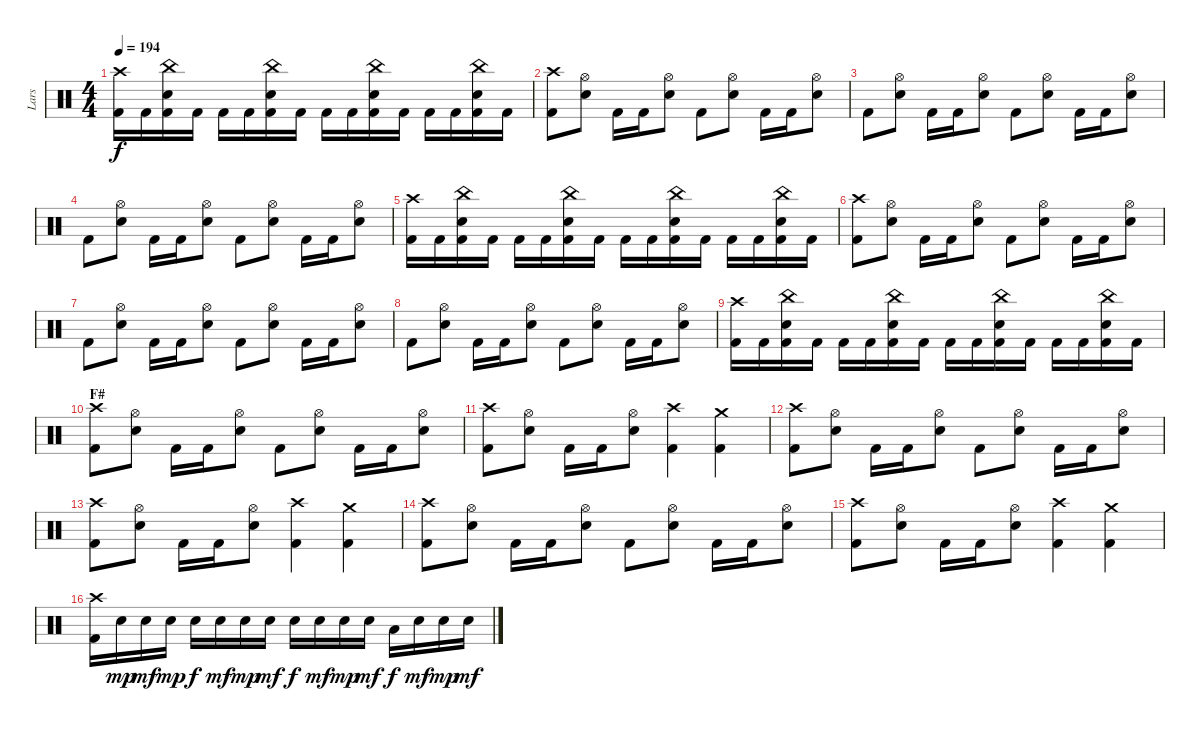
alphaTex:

\track ("Lars" "Lars") {instrument percussion}
\staff {score}
\articulation defaults
\ts (4 4)
\tempo 194
\clef neutral
\ks c
("Kick (hit) 2" "Crash high (hit)").16{dy f} "Kick (hit) 2".16 ("Kick (hit) 2" "Electric Snare (hit)" "China (hit)").16 "Kick (hit) 2".16 "Kick (hit) 2".16 "Kick (hit) 2".16 ("Kick (hit) 2" "Electric Snare (hit)" "China (hit)").16 "Kick (hit) 2".16 "Kick (hit) 2".16 "Kick (hit) 2".16 ("Kick (hit) 2" "Electric Snare (hit)" "China (hit)").16 "Kick (hit) 2".16 "Kick (hit) 2".16 "Kick (hit) 2".16 ("Kick (hit) 2" "Electric Snare (hit)" "China (hit)").16 "Kick (hit) 2".16 |
("Kick (hit) 2" "Crash high (hit)").8 ("Electric Snare (hit)" "Hi-Hat (open)").8 "Kick (hit) 2".16 "Kick (hit) 2".16 ("Electric Snare (hit)" "Hi-Hat (open)").8 "Kick (hit) 2".8 ("Electric Snare (hit)" "Hi-Hat (open)").8 "Kick (hit) 2".16 "Kick (hit) 2".16 ("Electric Snare (hit)" "Hi-Hat (open)").8 |
"Kick (hit) 2".8 ("Electric Snare (hit)" "Hi-Hat (open)").8 "Kick (hit) 2".16 "Kick (hit) 2".16 ("Electric Snare (hit)" "Hi-Hat (open)").8 "Kick (hit) 2".8 ("Electric Snare (hit)" "Hi-Hat (open)").8 "Kick (hit) 2".16 "Kick (hit) 2".16 ("Electric Snare (hit)" "Hi-Hat (open)").8 |
"Kick (hit) 2".8 ("Electric Snare (hit)" "Hi-Hat (open)").8 "Kick (hit) 2".16 "Kick (hit) 2".16 ("Electric Snare (hit)" "Hi-Hat (open)").8 "Kick (hit) 2".8 ("Electric Snare (hit)" "Hi-Hat (open)").8 "Kick (hit) 2".16 "Kick (hit) 2".16 ("Electric Snare (hit)" "Hi-Hat (open)").8 |
("Kick (hit) 2" "Crash high (hit)").16 "Kick (hit) 2".16 ("Kick (hit) 2" "Electric Snare (hit)" "China (hit)").16 "Kick (hit) 2".16 "Kick (hit) 2".16 "Kick (hit) 2".16 ("Kick (hit) 2" "Electric Snare (hit)" "China (hit)").16 "Kick (hit) 2".16 "Kick (hit) 2".16 "Kick (hit) 2".16 ("Kick (hit) 2" "Electric Snare (hit)" "China (hit)").16 "Kick (hit) 2".16 "Kick (hit) 2".16 "Kick (hit) 2".16 ("Kick (hit) 2" "Electric Snare (hit)" "China (hit)").16 "Kick (hit) 2".16 |
("Kick (hit) 2" "Crash high (hit)").8 ("Electric Snare (hit)" "Hi-Hat (open)").8 "Kick (hit) 2".16 "Kick (hit) 2".16 ("Electric Snare (hit)" "Hi-Hat (open)").8 "Kick (hit) 2".8 ("Electric Snare (hit)" "Hi-Hat (open)").8 "Kick (hit) 2".16 "Kick (hit) 2".16 ("Electric Snare (hit)" "Hi-Hat (open)").8 |
"Kick (hit) 2".8 ("Electric Snare (hit)" "Hi-Hat (open)").8 "Kick (hit) 2".16 "Kick (hit) 2".16 ("Electric Snare (hit)" "Hi-Hat (open)").8 "Kick (hit) 2".8 ("Electric Snare (hit)" "Hi-Hat (open)").8 "Kick (hit) 2".16 "Kick (hit) 2".16 ("Electric Snare (hit)" "Hi-Hat (open)").8 |
"Kick (hit) 2".8 ("Electric Snare (hit)" "Hi-Hat (open)").8 "Kick (hit) 2".16 "Kick (hit) 2".16 ("Electric Snare (hit)" "Hi-Hat (open)").8 "Kick (hit) 2".8 ("Electric Snare (hit)" "Hi-Hat (open)").8 "Kick (hit) 2".16 "Kick (hit) 2".16 ("Electric Snare (hit)" "Hi-Hat (open)").8 |
("Kick (hit) 2" "Crash high (hit)").16 "Kick (hit) 2".16 ("Kick (hit) 2" "Electric Snare (hit)" "China (hit)").16 "Kick (hit) 2".16 "Kick (hit) 2".16 "Kick (hit) 2".16 ("Kick (hit) 2" "Electric Snare (hit)" "China (hit)").16 "Kick (hit) 2".16 "Kick (hit) 2".16 "Kick (hit) 2".16 ("Kick (hit) 2" "Electric Snare (hit)" "China (hit)").16 "Kick (hit) 2".16 "Kick (hit) 2".16 "Kick (hit) 2".16 ("Kick (hit) 2" "Electric Snare (hit)" "China (hit)").16 "Kick (hit) 2".16 |
\section ("" "F#")
("Kick (hit) 2" "Crash high (hit)").8 ("Electric Snare (hit)" "Hi-Hat (open)").8 "Kick (hit) 2".16 "Kick (hit) 2".16 ("Electric Snare (hit)" "Hi-Hat (open)").8 "Kick (hit) 2".8 ("Electric Snare (hit)" "Hi-Hat (open)").8 "Kick (hit) 2".16 "Kick (hit) 2".16 ("Electric Snare (hit)" "Hi-Hat (open)").8 |
("Kick (hit) 2" "Crash high (hit)").8 ("Electric Snare (hit)" "Hi-Hat (open)").8 "Kick (hit) 2".16 "Kick (hit) 2".16 ("Electric Snare (hit)" "Hi-Hat (open)").8 ("Kick (hit) 2" "Crash high (hit)").4 ("Kick (hit) 2" "Crash medium (hit)").4 |
("Kick (hit) 2" "Crash high (hit)").8 ("Electric Snare (hit)" "Hi-Hat (open)").8 "Kick (hit) 2".16 "Kick (hit) 2".16 ("Electric Snare (hit)" "Hi-Hat (open)").8 "Kick (hit) 2".8 ("Electric Snare (hit)" "Hi-Hat (open)").8 "Kick (hit) 2".16 "Kick (hit) 2".16 ("Electric Snare (hit)" "Hi-Hat (open)").8 |
("Kick (hit) 2" "Crash high (hit)").8 ("Electric Snare (hit)" "Hi-Hat (open)").8 "Kick (hit) 2".16 "Kick (hit) 2".16 ("Electric Snare (hit)" "Hi-Hat (open)").8 ("Kick (hit) 2" "Crash high (hit)").4 ("Kick (hit) 2" "Crash medium (hit)").4 |
("Kick (hit) 2" "Crash high (hit)").8 ("Electric Snare (hit)" "Hi-Hat (open)").8 "Kick (hit) 2".16 "Kick (hit) 2".16 ("Electric Snare (hit)" "Hi-Hat (open)").8 "Kick (hit) 2".8 ("Electric Snare (hit)" "Hi-Hat (open)").8 "Kick (hit) 2".16 "Kick (hit) 2".16 ("Electric Snare (hit)" "Hi-Hat (open)").8 |
("Kick (hit) 2" "Crash high (hit)").8 ("Electric Snare (hit)" "Hi-Hat (open)").8 "Kick (hit) 2".16 "Kick (hit) 2".16 ("Electric Snare (hit)" "Hi-Hat (open)").8 ("Kick (hit) 2" "Crash high (hit)").4 ("Kick (hit) 2" "Crash medium (hit)").4 |
("Kick (hit) 2" "Crash high (hit)").16 "Electric Snare (hit)".16{dy mp} "Electric Snare (hit)".16{dy mf} "Electric Snare (hit)".16{dy mp} "Electric Snare (hit)".16{dy f} "Electric Snare (hit)".16{dy mf} "Electric Snare (hit)".16{dy mp} "Electric Snare (hit)".16{dy mf} "Electric Snare (hit)".16{dy f} "Electric Snare (hit)".16{dy mf} "Electric Snare (hit)".16{dy mp} "Electric Snare (hit)".16{dy mf} "Low Tom (hit)".16{dy f} "Electric Snare (hit)".16{dy mf} "Electric Snare (hit)".16{dy mp} "Electric Snare (hit)".16{dy mf}
